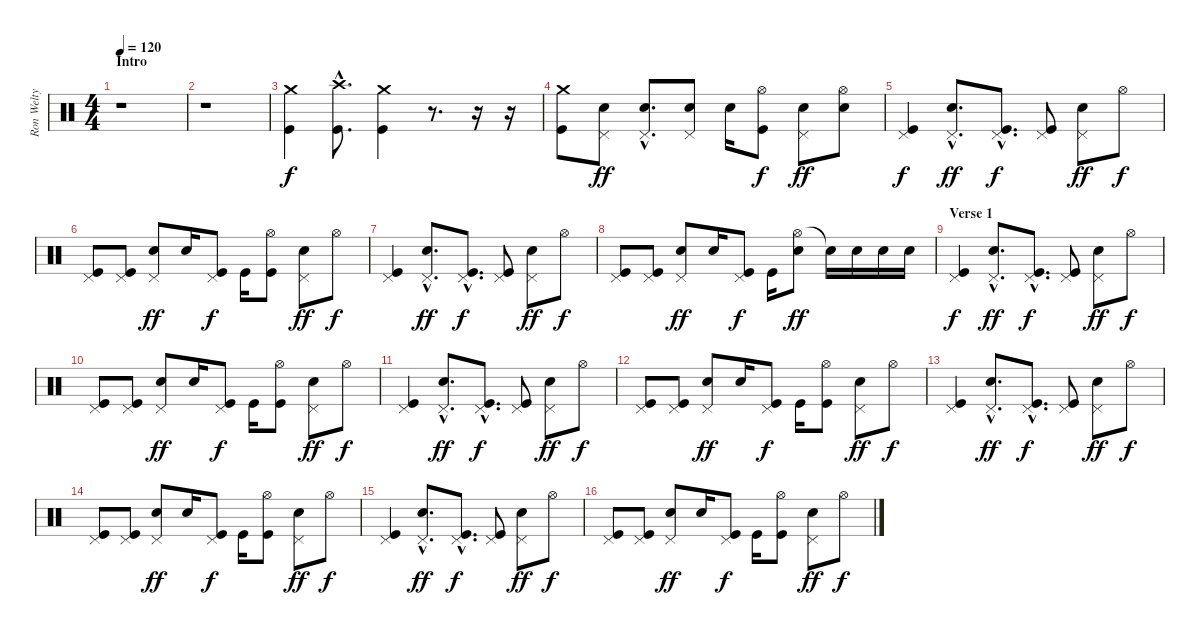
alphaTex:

\track ("Ron Welty" "Ron Welty") {instrument percussion}
\staff {score}
\articulation defaults
\ts (4 4)
\section ("" "Intro")
\tempo 120
\clef neutral
\ks c
r.1{dy f} |
r.1 |
("Crash medium (hit)" "Kick (hit)").4 ("Crash high (hit)"{hac} "Kick (hit)").8{d} ("Crash medium (hit)" "Kick (hit)").4 r.8{d} r.16 r.16 |
("Crash medium (hit)" "Kick (hit)").8 ("Pedal Hi-Hat (hit)" "Snare (hit) 2").8{dy ff} ("Pedal Hi-Hat (hit)"{hac} "Snare (hit) 2"{hac}).8{d} ("Pedal Hi-Hat (hit)" "Snare (hit) 2").8 "Snare (hit) 2".16 ("Hi-Hat (open)" "Kick (hit)").8{dy f} ("Pedal Hi-Hat (hit)" "Snare (hit) 2").8{dy ff} ("Hi-Hat (open)" "Snare (hit) 2").8 |
("Pedal Hi-Hat (hit)" "Kick (hit)").4{dy f} ("Pedal Hi-Hat (hit)"{hac} "Snare (hit) 2"{hac}).8{d dy ff} ("Pedal Hi-Hat (hit)"{hac} "Kick (hit)"{hac}).8{d dy f} ("Pedal Hi-Hat (hit)" "Kick (hit)").8 ("Pedal Hi-Hat (hit)" "Snare (hit) 2").8{dy ff} "Hi-Hat (open)".8{dy f} |
("Pedal Hi-Hat (hit)" "Kick (hit)").8 ("Pedal Hi-Hat (hit)" "Kick (hit)").8 ("Pedal Hi-Hat (hit)" "Snare (hit) 2").8{dy ff} "Snare (hit) 2".16 ("Pedal Hi-Hat (hit)" "Kick (hit)").8{dy f} "Kick (hit)".16 ("Hi-Hat (open)" "Kick (hit)").8 ("Pedal Hi-Hat (hit)" "Snare (hit) 2").8{dy ff} "Hi-Hat (open)".8{dy f} |
("Pedal Hi-Hat (hit)" "Kick (hit)").4 ("Pedal Hi-Hat (hit)"{hac} "Snare (hit) 2"{hac}).8{d dy ff} ("Pedal Hi-Hat (hit)"{hac} "Kick (hit)"{hac}).8{d dy f} ("Pedal Hi-Hat (hit)" "Kick (hit)").8 ("Pedal Hi-Hat (hit)" "Snare (hit) 2").8{dy ff} "Hi-Hat (open)".8{dy f} |
("Pedal Hi-Hat (hit)" "Kick (hit)").8 ("Pedal Hi-Hat (hit)" "Kick (hit)").8 ("Pedal Hi-Hat (hit)" "Snare (hit) 2").8{dy ff} "Snare (hit) 2".16 ("Pedal Hi-Hat (hit)" "Kick (hit)").8{dy f} "Kick (hit)".16 ("Hi-Hat (open)" "Snare (hit) 2").8{dy ff} "Snare (hit) 2"{t}.16 "Snare (hit) 2".16 "Snare (hit) 2".16 "Snare (hit) 2".16 |
\section ("" "Verse 1")
("Pedal Hi-Hat (hit)" "Kick (hit)").4{dy f} ("Pedal Hi-Hat (hit)"{hac} "Snare (hit) 2"{hac}).8{d dy ff} ("Pedal Hi-Hat (hit)"{hac} "Kick (hit)"{hac}).8{d dy f} ("Pedal Hi-Hat (hit)" "Kick (hit)").8 ("Pedal Hi-Hat (hit)" "Snare (hit) 2").8{dy ff} "Hi-Hat (open)".8{dy f} |
("Pedal Hi-Hat (hit)" "Kick (hit)").8 ("Pedal Hi-Hat (hit)" "Kick (hit)").8 ("Pedal Hi-Hat (hit)" "Snare (hit) 2").8{dy ff} "Snare (hit) 2".16 ("Pedal Hi-Hat (hit)" "Kick (hit)").8{dy f} "Kick (hit)".16 ("Hi-Hat (open)" "Kick (hit)").8 ("Pedal Hi-Hat (hit)" "Snare (hit) 2").8{dy ff} "Hi-Hat (open)".8{dy f} |
("Pedal Hi-Hat (hit)" "Kick (hit)").4 ("Pedal Hi-Hat (hit)"{hac} "Snare (hit) 2"{hac}).8{d dy ff} ("Pedal Hi-Hat (hit)"{hac} "Kick (hit)"{hac}).8{d dy f} ("Pedal Hi-Hat (hit)" "Kick (hit)").8 ("Pedal Hi-Hat (hit)" "Snare (hit) 2").8{dy ff} "Hi-Hat (open)".8{dy f} |
("Pedal Hi-Hat (hit)" "Kick (hit)").8 ("Pedal Hi-Hat (hit)" "Kick (hit)").8 ("Pedal Hi-Hat (hit)" "Snare (hit) 2").8{dy ff} "Snare (hit) 2".16 ("Pedal Hi-Hat (hit)" "Kick (hit)").8{dy f} "Kick (hit)".16 ("Hi-Hat (open)" "Kick (hit)").8 ("Pedal Hi-Hat (hit)" "Snare (hit) 2").8{dy ff} "Hi-Hat (open)".8{dy f} |
("Pedal Hi-Hat (hit)" "Kick (hit)").4 ("Pedal Hi-Hat (hit)"{hac} "Snare (hit) 2"{hac}).8{d dy ff} ("Pedal Hi-Hat (hit)"{hac} "Kick (hit)"{hac}).8{d dy f} ("Pedal Hi-Hat (hit)" "Kick (hit)").8 ("Pedal Hi-Hat (hit)" "Snare (hit) 2").8{dy ff} "Hi-Hat (open)".8{dy f} |
("Pedal Hi-Hat (hit)" "Kick (hit)").8 ("Pedal Hi-Hat (hit)" "Kick (hit)").8 ("Pedal Hi-Hat (hit)" "Snare (hit) 2").8{dy ff} "Snare (hit) 2".16 ("Pedal Hi-Hat (hit)" "Kick (hit)").8{dy f} "Kick (hit)".16 ("Hi-Hat (open)" "Kick (hit)").8 ("Pedal Hi-Hat (hit)" "Snare (hit) 2").8{dy ff} "Hi-Hat (open)".8{dy f} |
("Pedal Hi-Hat (hit)" "Kick (hit)").4 ("Pedal Hi-Hat (hit)"{hac} "Snare (hit) 2"{hac}).8{d dy ff} ("Pedal Hi-Hat (hit)"{hac} "Kick (hit)"{hac}).8{d dy f} ("Pedal Hi-Hat (hit)" "Kick (hit)").8 ("Pedal Hi-Hat (hit)" "Snare (hit) 2").8{dy ff} "Hi-Hat (open)".8{dy f} |
("Pedal Hi-Hat (hit)" "Kick (hit)").8 ("Pedal Hi-Hat (hit)" "Kick (hit)").8 ("Pedal Hi-Hat (hit)" "Snare (hit) 2").8{dy ff} "Snare (hit) 2".16 ("Pedal Hi-Hat (hit)" "Kick (hit)").8{dy f} "Kick (hit)".16 ("Hi-Hat (open)" "Kick (hit)").8 ("Pedal Hi-Hat (hit)" "Snare (hit) 2").8{dy ff} "Hi-Hat (open)".8{dy f}
